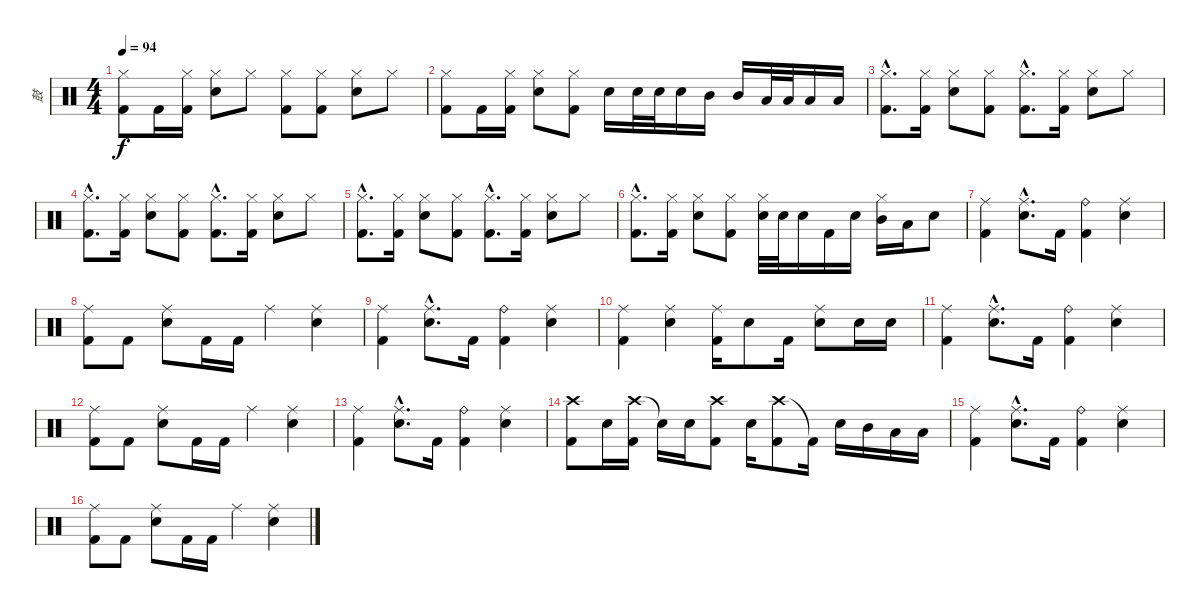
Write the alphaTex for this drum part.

\track ("鼓" "鼓") {instrument percussion}
\staff {score}
\articulation defaults
\ts (4 4)
\tempo 94
\clef neutral
\ks c
("Hi-Hat (closed)" "Kick (hit) 2").8{dy f} "Kick (hit) 2".16 ("Hi-Hat (closed)" "Kick (hit) 2").16 ("Hi-Hat (closed)" "Snare (hit) 2").8 "Hi-Hat (closed)".8 ("Hi-Hat (closed)" "Kick (hit) 2").8 ("Hi-Hat (closed)" "Kick (hit) 2").8 ("Hi-Hat (closed)" "Snare (hit) 2").8 "Hi-Hat (closed)".8 |
("Hi-Hat (closed)" "Kick (hit) 2").8 "Kick (hit) 2".16 ("Hi-Hat (closed)" "Kick (hit) 2").16 ("Hi-Hat (closed)" "Snare (hit) 2").8 ("Hi-Hat (closed)" "Kick (hit) 2").8 "Snare (hit) 2".16 "Snare (hit) 2".32 "Snare (hit) 2".32 "Snare (hit) 2".16 "Mid Tom (hit)".16 "Mid Tom (hit)".16 "Low Tom (hit)".32 "Low Tom (hit)".32 "Low Tom (hit)".16 "Low Floor Tom (hit)".16 |
("Hi-Hat (closed)"{hac} "Kick (hit) 2"{hac}).8{d} ("Hi-Hat (closed)" "Kick (hit) 2").16 ("Hi-Hat (closed)" "Snare (hit) 2").8 ("Hi-Hat (closed)" "Kick (hit) 2").8 ("Hi-Hat (closed)"{hac} "Kick (hit) 2"{hac}).8{d} ("Hi-Hat (closed)" "Kick (hit) 2").16 ("Hi-Hat (closed)" "Snare (hit) 2").8 "Hi-Hat (closed)".8 |
("Hi-Hat (closed)"{hac} "Kick (hit) 2"{hac}).8{d} ("Hi-Hat (closed)" "Kick (hit) 2").16 ("Hi-Hat (closed)" "Snare (hit) 2").8 ("Hi-Hat (closed)" "Kick (hit) 2").8 ("Hi-Hat (closed)"{hac} "Kick (hit) 2"{hac}).8{d} ("Hi-Hat (closed)" "Kick (hit) 2").16 ("Hi-Hat (closed)" "Snare (hit) 2").8 "Hi-Hat (closed)".8 |
("Hi-Hat (closed)"{hac} "Kick (hit) 2"{hac}).8{d} ("Hi-Hat (closed)" "Kick (hit) 2").16 ("Hi-Hat (closed)" "Snare (hit) 2").8 ("Hi-Hat (closed)" "Kick (hit) 2").8 ("Hi-Hat (closed)"{hac} "Kick (hit) 2"{hac}).8{d} ("Hi-Hat (closed)" "Kick (hit) 2").16 ("Hi-Hat (closed)" "Snare (hit) 2").8 "Hi-Hat (closed)".8 |
("Hi-Hat (closed)"{hac} "Kick (hit) 2"{hac}).8{d} ("Hi-Hat (closed)" "Kick (hit) 2").16 ("Hi-Hat (closed)" "Snare (hit) 2").8 ("Hi-Hat (closed)" "Kick (hit) 2").8 ("Hi-Hat (closed)" "Snare (hit) 2").32 "Snare (hit) 2".32 "Snare (hit) 2".16 "Kick (hit) 2".16 "Snare (hit) 2".16 ("Hi-Hat (closed)" "Mid Tom (hit)").16 "Low Tom (hit)".16 "Snare (hit) 2".8 |
("Ride (middle)" "Kick (hit) 2").4 ("Ride (middle)"{hac} "Snare (hit) 2"{hac}).8{d} "Kick (hit) 2".16 ("Ride (bell)" "Kick (hit) 2").4 ("Ride (middle)" "Snare (hit) 2").4 |
("Ride (middle)" "Kick (hit) 2").8 "Kick (hit) 2".8 ("Ride (middle)" "Snare (hit) 2").8 "Kick (hit) 2".16 "Kick (hit) 2".16 "Ride (middle)".4 ("Ride (middle)" "Snare (hit) 2").4 |
("Ride (middle)" "Kick (hit) 2").4 ("Ride (middle)"{hac} "Snare (hit) 2"{hac}).8{d} "Kick (hit) 2".16 ("Ride (bell)" "Kick (hit) 2").4 ("Ride (middle)" "Snare (hit) 2").4 |
("Ride (middle)" "Kick (hit) 2").4 ("Ride (middle)" "Snare (hit) 2").4 ("Ride (middle)" "Kick (hit) 2").16 "Snare (hit) 2".8 "Kick (hit) 2".16 ("Ride (middle)" "Snare (hit) 2").8 "Snare (hit) 2".16 "Snare (hit) 2".16 |
("Ride (middle)" "Kick (hit) 2").4 ("Ride (middle)"{hac} "Snare (hit) 2"{hac}).8{d} "Kick (hit) 2".16 ("Ride (bell)" "Kick (hit) 2").4 ("Ride (middle)" "Snare (hit) 2").4 |
("Ride (middle)" "Kick (hit) 2").8 "Kick (hit) 2".8 ("Ride (middle)" "Snare (hit) 2").8 "Kick (hit) 2".16 "Kick (hit) 2".16 "Ride (middle)".4 ("Ride (middle)" "Snare (hit) 2").4 |
("Ride (middle)" "Kick (hit) 2").4 ("Ride (middle)"{hac} "Snare (hit) 2"{hac}).8{d} "Kick (hit) 2".16 ("Ride (bell)" "Kick (hit) 2").4 ("Ride (middle)" "Snare (hit) 2").4 |
("Crash high (hit)" "Kick (hit) 2").8 "Snare (hit) 2".16 ("Crash high (hit)" "Kick (hit) 2").16 "Snare (hit)"{t}.16 "Snare (hit) 2".16 ("Crash high (hit)" "Kick (hit) 2").8 "Snare (hit) 2".16 ("Crash high (hit)" "Kick (hit) 2").8 "Kick (hit) 2"{t}.16 "Snare (hit) 2".16 "Mid Tom (hit)".16 "Low Tom (hit)".16 "Low Floor Tom (hit)".16 |
("Ride (middle)" "Kick (hit) 2").4 ("Ride (middle)"{hac} "Snare (hit) 2"{hac}).8{d} "Kick (hit) 2".16 ("Ride (bell)" "Kick (hit) 2").4 ("Ride (middle)" "Snare (hit) 2").4 |
("Ride (middle)" "Kick (hit) 2").8 "Kick (hit) 2".8 ("Ride (middle)" "Snare (hit) 2").8 "Kick (hit) 2".16 "Kick (hit) 2".16 "Ride (middle)".4 ("Ride (middle)" "Snare (hit) 2").4
